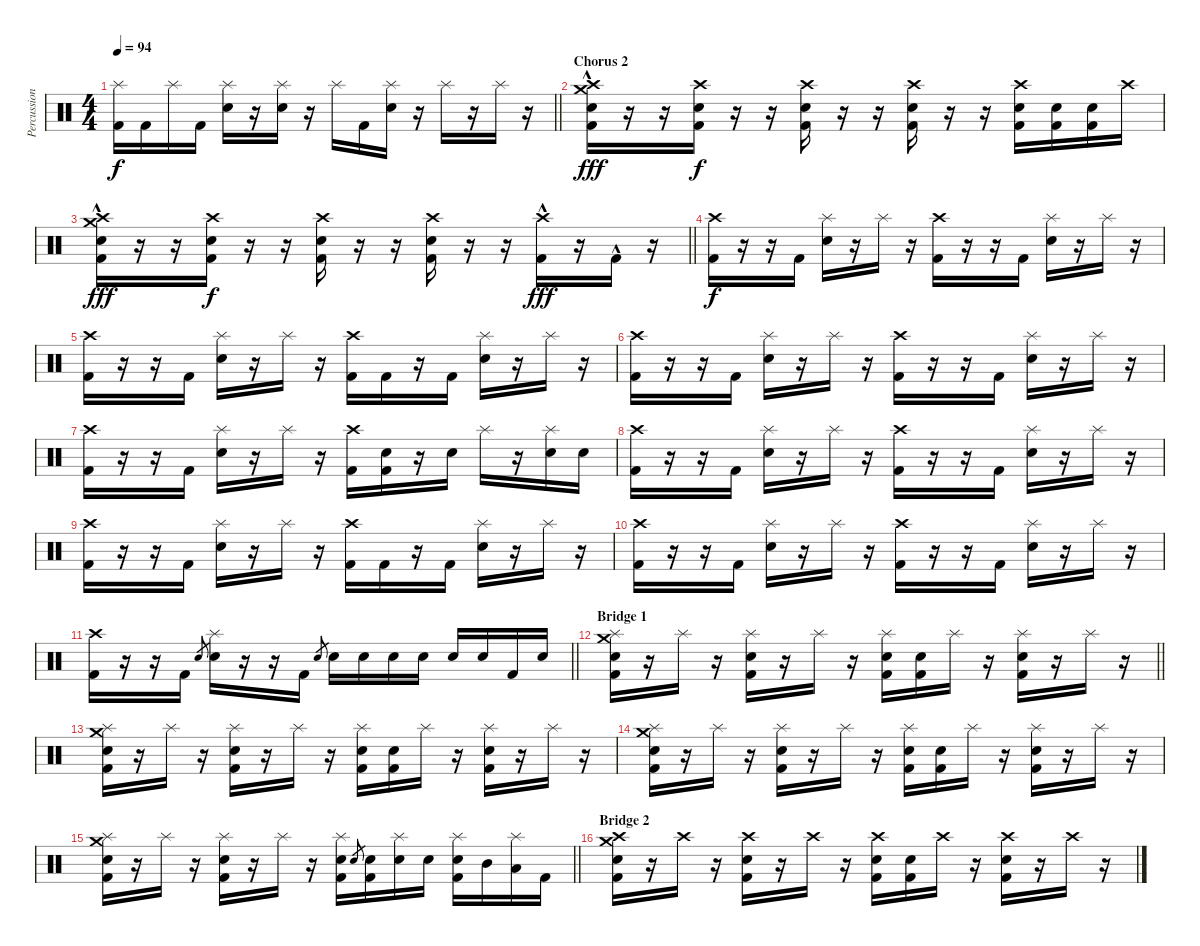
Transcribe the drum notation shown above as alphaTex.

\track ("Percussion" "Percussion") {instrument percussion}
\staff {score}
\articulation defaults
\ts (4 4)
\tempo 94
\clef neutral
\barLineRight lightlight
\ks c
("Kick (hit) 2" "Splash (hit)").16{dy f} "Kick (hit) 2".16 "Splash (hit)".16 "Kick (hit) 2".16 ("Snare (hit) 2" "Splash (hit)").16 r.16 ("Snare (hit) 2" "Splash (hit)").16 r.16 "Splash (hit)".16 "Kick (hit) 2".16 ("Snare (hit) 2" "Splash (hit)").16 r.16 "Splash (hit)".16 r.16 "Splash (hit)".16 r.16 |
\section ("" "Chorus 2")
("Kick (hit) 2" "Snare (hit) 2" "Crash medium (hit)"{hac} "Crash high (hit)"{hac}).16{dy fff} r.16 r.16 ("Kick (hit) 2" "Snare (hit) 2" "Crash high (hit)").16{dy f} r.16 r.16 ("Kick (hit) 2" "Snare (hit) 2" "Crash high (hit)").16 r.16 r.16 ("Kick (hit) 2" "Snare (hit) 2" "Crash high (hit)").16 r.16 r.16 ("Kick (hit) 2" "Snare (hit) 2" "Crash high (hit)").16 ("Kick (hit) 2" "Snare (hit) 2").16 ("Kick (hit) 2" "Snare (hit) 2").16 "Crash high (hit)".16 |
\barLineRight lightlight
("Kick (hit) 2" "Snare (hit) 2" "Crash medium (hit)"{hac} "Crash high (hit)"{hac}).16{dy fff} r.16 r.16 ("Kick (hit) 2" "Snare (hit) 2" "Crash high (hit)").16{dy f} r.16 r.16 ("Kick (hit) 2" "Snare (hit) 2" "Crash high (hit)").16 r.16 r.16 ("Kick (hit) 2" "Snare (hit) 2" "Crash high (hit)").16 r.16 r.16 ("Kick (hit) 2"{hac} "Crash high (hit)").16{dy fff} r.16 "Kick (hit) 2"{hac}.16 r.16 |
("Kick (hit) 2" "Crash high (hit)").16{dy f} r.16 r.16 "Kick (hit) 2".16 ("Snare (hit) 2" "Splash (hit)").16 r.16 "Splash (hit)".16 r.16 ("Kick (hit) 2" "Crash high (hit)").16 r.16 r.16 "Kick (hit) 2".16 ("Snare (hit) 2" "Splash (hit)").16 r.16 "Splash (hit)".16 r.16 |
("Kick (hit) 2" "Crash high (hit)").16 r.16 r.16 "Kick (hit) 2".16 ("Snare (hit) 2" "Splash (hit)").16 r.16 "Splash (hit)".16 r.16 ("Kick (hit) 2" "Crash high (hit)").16 "Kick (hit) 2".16 r.16 "Kick (hit) 2".16 ("Snare (hit) 2" "Splash (hit)").16 r.16 "Splash (hit)".16 r.16 |
("Kick (hit) 2" "Crash high (hit)").16 r.16 r.16 "Kick (hit) 2".16 ("Snare (hit) 2" "Splash (hit)").16 r.16 "Splash (hit)".16 r.16 ("Kick (hit) 2" "Crash high (hit)").16 r.16 r.16 "Kick (hit) 2".16 ("Snare (hit) 2" "Splash (hit)").16 r.16 "Splash (hit)".16 r.16 |
("Kick (hit) 2" "Crash high (hit)").16 r.16 r.16 "Kick (hit) 2".16 ("Snare (hit) 2" "Splash (hit)").16 r.16 "Splash (hit)".16 r.16 ("Kick (hit) 2" "Crash high (hit)").16 ("Kick (hit) 2" "Snare (hit) 2").16 r.16 "Snare (hit) 2".16 "Splash (hit)".16 r.16 ("Snare (hit) 2" "Splash (hit)").16 "Snare (hit) 2".16 |
("Kick (hit) 2" "Crash high (hit)").16 r.16 r.16 "Kick (hit) 2".16 ("Snare (hit) 2" "Splash (hit)").16 r.16 "Splash (hit)".16 r.16 ("Kick (hit) 2" "Crash high (hit)").16 r.16 r.16 "Kick (hit) 2".16 ("Snare (hit) 2" "Splash (hit)").16 r.16 "Splash (hit)".16 r.16 |
("Kick (hit) 2" "Crash high (hit)").16 r.16 r.16 "Kick (hit) 2".16 ("Snare (hit) 2" "Splash (hit)").16 r.16 "Splash (hit)".16 r.16 ("Kick (hit) 2" "Crash high (hit)").16 "Kick (hit) 2".16 r.16 "Kick (hit) 2".16 ("Snare (hit) 2" "Splash (hit)").16 r.16 "Splash (hit)".16 r.16 |
("Kick (hit) 2" "Crash high (hit)").16 r.16 r.16 "Kick (hit) 2".16 ("Snare (hit) 2" "Splash (hit)").16 r.16 "Splash (hit)".16 r.16 ("Kick (hit) 2" "Crash high (hit)").16 r.16 r.16 "Kick (hit) 2".16 ("Snare (hit) 2" "Splash (hit)").16 r.16 "Splash (hit)".16 r.16 |
\barLineRight lightlight
("Kick (hit) 2" "Crash high (hit)").16 r.16 r.16 "Kick (hit) 2".16 "Snare (hit) 2".8{gr} ("Snare (hit) 2" "Splash (hit)").16 r.16 r.16 "Kick (hit) 2".16 "Snare (hit) 2".8{gr} "Snare (hit) 2".16 "Snare (hit) 2".16 "Snare (hit) 2".16 "Snare (hit) 2".16 "Snare (hit) 2".16 "Snare (hit) 2".16 "Kick (hit) 2".16 "Snare (hit) 2".16 |
\section ("" "Bridge 1")
\barLineRight lightlight
("Kick (hit) 2" "Snare (hit) 2" "Splash (hit)" "Crash medium (hit)").16 r.16 "Splash (hit)".16 r.16 ("Kick (hit) 2" "Snare (hit) 2" "Splash (hit)").16 r.16 "Splash (hit)".16 r.16 ("Kick (hit) 2" "Snare (hit) 2" "Splash (hit)").16 ("Kick (hit) 2" "Snare (hit) 2").16 "Splash (hit)".16 r.16 ("Kick (hit) 2" "Snare (hit) 2" "Splash (hit)").16 r.16 "Splash (hit)".16 r.16 |
("Kick (hit) 2" "Snare (hit) 2" "Splash (hit)" "Crash medium (hit)").16 r.16 "Splash (hit)".16 r.16 ("Kick (hit) 2" "Snare (hit) 2" "Splash (hit)").16 r.16 "Splash (hit)".16 r.16 ("Kick (hit) 2" "Snare (hit) 2" "Splash (hit)").16 ("Kick (hit) 2" "Snare (hit) 2").16 "Splash (hit)".16 r.16 ("Kick (hit) 2" "Snare (hit) 2" "Splash (hit)").16 r.16 "Splash (hit)".16 r.16 |
("Kick (hit) 2" "Snare (hit) 2" "Splash (hit)" "Crash medium (hit)").16 r.16 "Splash (hit)".16 r.16 ("Kick (hit) 2" "Snare (hit) 2" "Splash (hit)").16 r.16 "Splash (hit)".16 r.16 ("Kick (hit) 2" "Snare (hit) 2" "Splash (hit)").16 ("Kick (hit) 2" "Snare (hit) 2").16 "Splash (hit)".16 r.16 ("Kick (hit) 2" "Snare (hit) 2" "Splash (hit)").16 r.16 "Splash (hit)".16 r.16 |
\barLineRight lightlight
("Kick (hit) 2" "Snare (hit) 2" "Splash (hit)" "Crash medium (hit)").16 r.16 "Splash (hit)".16 r.16 ("Kick (hit) 2" "Snare (hit) 2" "Splash (hit)").16 r.16 "Splash (hit)".16 r.16 ("Kick (hit) 2" "Snare (hit) 2" "Splash (hit)").16 "Snare (hit) 2".8{gr} ("Kick (hit) 2" "Snare (hit) 2").16 ("Snare (hit) 2" "Splash (hit)").16 "Snare (hit) 2".16 ("Kick (hit) 2" "Snare (hit) 2" "Splash (hit)").16 "Mid Tom (hit)".16 ("Low Tom (hit)" "Splash (hit)").16 "Kick (hit) 2".16 |
\section ("" "Bridge 2")
("Kick (hit) 2" "Snare (hit) 2" "Crash high (hit)" "Crash medium (hit)").16 r.16 "Crash high (hit)".16 r.16 ("Kick (hit) 2" "Snare (hit) 2" "Crash high (hit)").16 r.16 "Crash high (hit)".16 r.16 ("Kick (hit) 2" "Snare (hit) 2" "Crash high (hit)").16 ("Kick (hit) 2" "Snare (hit) 2").16 "Crash high (hit)".16 r.16 ("Kick (hit) 2" "Snare (hit) 2" "Crash high (hit)").16 r.16 "Crash high (hit)".16 r.16
